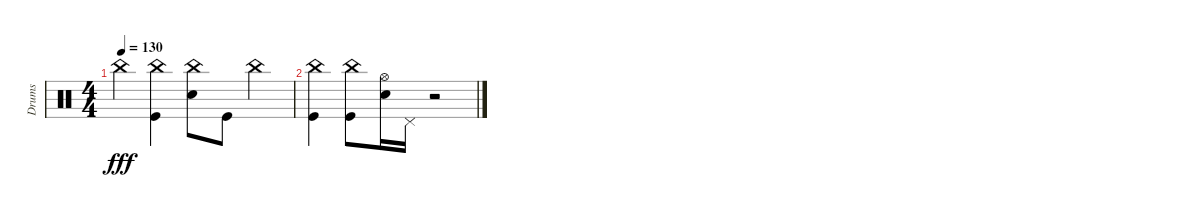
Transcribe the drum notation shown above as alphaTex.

\track ("Drums" "Drums") {instrument percussion}
\staff {score}
\articulation defaults
\ts (4 4)
\tempo 130
\clef neutral
\ks c "China (hit)".4{dy fff}
("China (hit)" "Kick (hit)").4 ("China (hit)" "Snare (hit) 2").8 "Kick (hit)".8 "China (hit)".4 |
("China (hit)" "Kick (hit)").4 ("Kick (hit)" "China (hit)").8 ("Hi-Hat (open)" "Snare (hit) 2").16 "Pedal Hi-Hat (hit)".16 r.2
